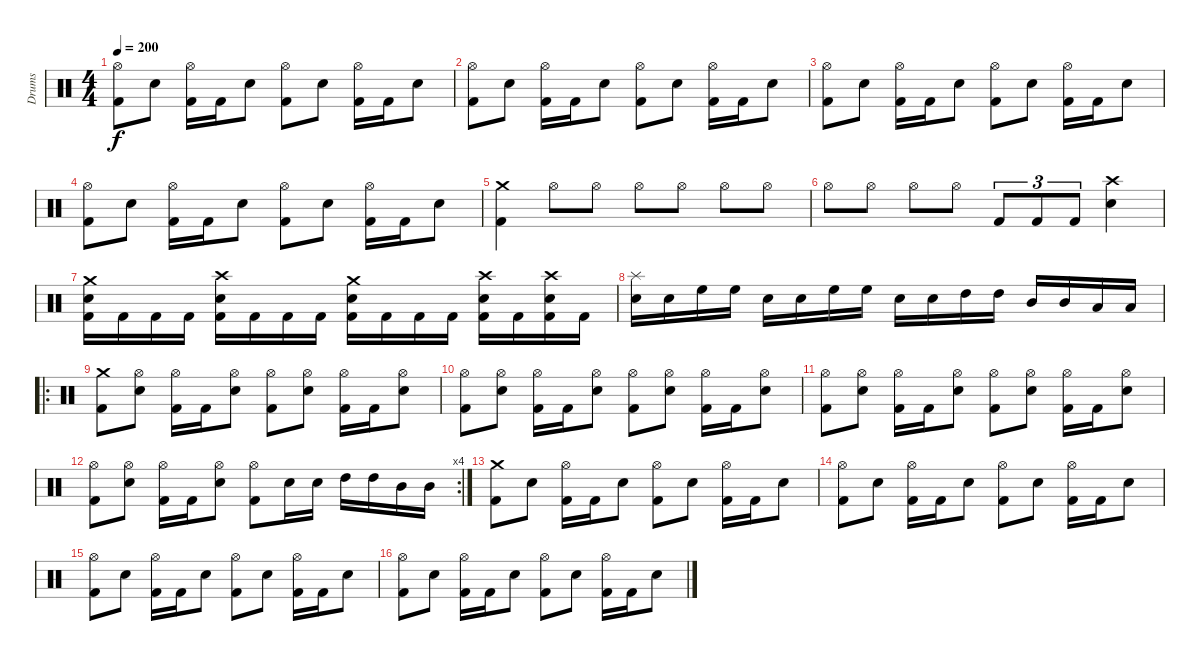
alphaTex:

\track ("Drums" "Drums") {instrument percussion}
\staff {score}
\articulation defaults
\ts (4 4)
\tempo 200
\clef neutral
\ks c
("Hi-Hat (open)" "Kick (hit) 2").8{dy f} "Electric Snare (hit)".8 ("Hi-Hat (open)" "Kick (hit) 2").16 "Kick (hit) 2".16 "Electric Snare (hit)".8 ("Hi-Hat (open)" "Kick (hit) 2").8 "Electric Snare (hit)".8 ("Hi-Hat (open)" "Kick (hit) 2").16 "Kick (hit) 2".16 "Electric Snare (hit)".8 |
("Hi-Hat (open)" "Kick (hit) 2").8 "Electric Snare (hit)".8 ("Hi-Hat (open)" "Kick (hit) 2").16 "Kick (hit) 2".16 "Electric Snare (hit)".8 ("Hi-Hat (open)" "Kick (hit) 2").8 "Electric Snare (hit)".8 ("Hi-Hat (open)" "Kick (hit) 2").16 "Kick (hit) 2".16 "Electric Snare (hit)".8 |
("Hi-Hat (open)" "Kick (hit) 2").8 "Electric Snare (hit)".8 ("Hi-Hat (open)" "Kick (hit) 2").16 "Kick (hit) 2".16 "Electric Snare (hit)".8 ("Hi-Hat (open)" "Kick (hit) 2").8 "Electric Snare (hit)".8 ("Hi-Hat (open)" "Kick (hit) 2").16 "Kick (hit) 2".16 "Electric Snare (hit)".8 |
("Hi-Hat (open)" "Kick (hit) 2").8 "Electric Snare (hit)".8 ("Hi-Hat (open)" "Kick (hit) 2").16 "Kick (hit) 2".16 "Electric Snare (hit)".8 ("Hi-Hat (open)" "Kick (hit) 2").8 "Electric Snare (hit)".8 ("Hi-Hat (open)" "Kick (hit) 2").16 "Kick (hit) 2".16 "Electric Snare (hit)".8 |
("Crash medium (hit)" "Kick (hit) 2").4 "Hi-Hat (open)".8 "Hi-Hat (open)".8 "Hi-Hat (open)".8 "Hi-Hat (open)".8 "Hi-Hat (open)".8 "Hi-Hat (open)".8 |
"Hi-Hat (open)".8 "Hi-Hat (open)".8 "Hi-Hat (open)".8 "Hi-Hat (open)".8 "Kick (hit) 2".8{tu (3 2)} "Kick (hit) 2".8{tu (3 2)} "Kick (hit) 2".8{tu (3 2)} ("Crash high (hit)" "Electric Snare (hit)").4 |
("Crash medium (hit)" "Electric Snare (hit)" "Kick (hit) 2").16 "Kick (hit) 2".16 "Kick (hit) 2".16 "Kick (hit) 2".16 ("Crash high (hit)" "Electric Snare (hit)" "Kick (hit) 2").16 "Kick (hit) 2".16 "Kick (hit) 2".16 "Kick (hit) 2".16 ("Crash medium (hit)" "Electric Snare (hit)" "Kick (hit) 2").16 "Kick (hit) 2".16 "Kick (hit) 2".16 "Kick (hit) 2".16 ("Crash high (hit)" "Electric Snare (hit)" "Kick (hit) 2").16 "Kick (hit) 2".16 ("Crash high (hit)" "Electric Snare (hit)" "Kick (hit) 2").16 "Kick (hit) 2".16 |
("Splash (hit)" "Electric Snare (hit)").16 "Electric Snare (hit)".16 "High Floor Tom (hit)".16 "High Floor Tom (hit)".16 "Electric Snare (hit)".16 "Electric Snare (hit)".16 "High Floor Tom (hit)".16 "High Floor Tom (hit)".16 "Electric Snare (hit)".16 "Electric Snare (hit)".16 "High Tom (hit)".16 "High Tom (hit)".16 "Mid Tom (hit)".16 "Mid Tom (hit)".16 "Low Tom (hit)".16 "Low Tom (hit)".16 |
\ro
("Crash medium (hit)" "Kick (hit) 2").8 ("Hi-Hat (open)" "Electric Snare (hit)").8 ("Hi-Hat (open)" "Kick (hit) 2").16 "Kick (hit) 2".16 ("Hi-Hat (open)" "Electric Snare (hit)").8 ("Hi-Hat (open)" "Kick (hit) 2").8 ("Hi-Hat (open)" "Electric Snare (hit)").8 ("Hi-Hat (open)" "Kick (hit) 2").16 "Kick (hit) 2".16 ("Hi-Hat (open)" "Electric Snare (hit)").8 |
("Hi-Hat (open)" "Kick (hit) 2").8 ("Hi-Hat (open)" "Electric Snare (hit)").8 ("Hi-Hat (open)" "Kick (hit) 2").16 "Kick (hit) 2".16 ("Hi-Hat (open)" "Electric Snare (hit)").8 ("Hi-Hat (open)" "Kick (hit) 2").8 ("Hi-Hat (open)" "Electric Snare (hit)").8 ("Hi-Hat (open)" "Kick (hit) 2").16 "Kick (hit) 2".16 ("Hi-Hat (open)" "Electric Snare (hit)").8 |
("Hi-Hat (open)" "Kick (hit) 2").8 ("Hi-Hat (open)" "Electric Snare (hit)").8 ("Hi-Hat (open)" "Kick (hit) 2").16 "Kick (hit) 2".16 ("Hi-Hat (open)" "Electric Snare (hit)").8 ("Hi-Hat (open)" "Kick (hit) 2").8 ("Hi-Hat (open)" "Electric Snare (hit)").8 ("Hi-Hat (open)" "Kick (hit) 2").16 "Kick (hit) 2".16 ("Hi-Hat (open)" "Electric Snare (hit)").8 |
\rc 4
("Hi-Hat (open)" "Kick (hit) 2").8 ("Hi-Hat (open)" "Electric Snare (hit)").8 ("Hi-Hat (open)" "Kick (hit) 2").16 "Kick (hit) 2".16 ("Hi-Hat (open)" "Electric Snare (hit)").8 ("Hi-Hat (open)" "Kick (hit) 2").8 "Electric Snare (hit)".16 "Electric Snare (hit)".16 "High Tom (hit)".16 "High Tom (hit)".16 "Mid Tom (hit)".16 "Mid Tom (hit)".16 |
("Crash medium (hit)" "Kick (hit) 2").8 "Electric Snare (hit)".8 ("Hi-Hat (open)" "Kick (hit) 2").16 "Kick (hit) 2".16 "Electric Snare (hit)".8 ("Hi-Hat (open)" "Kick (hit) 2").8 "Electric Snare (hit)".8 ("Hi-Hat (open)" "Kick (hit) 2").16 "Kick (hit) 2".16 "Electric Snare (hit)".8 |
("Hi-Hat (open)" "Kick (hit) 2").8 "Electric Snare (hit)".8 ("Hi-Hat (open)" "Kick (hit) 2").16 "Kick (hit) 2".16 "Electric Snare (hit)".8 ("Hi-Hat (open)" "Kick (hit) 2").8 "Electric Snare (hit)".8 ("Hi-Hat (open)" "Kick (hit) 2").16 "Kick (hit) 2".16 "Electric Snare (hit)".8 |
("Hi-Hat (open)" "Kick (hit) 2").8 "Electric Snare (hit)".8 ("Hi-Hat (open)" "Kick (hit) 2").16 "Kick (hit) 2".16 "Electric Snare (hit)".8 ("Hi-Hat (open)" "Kick (hit) 2").8 "Electric Snare (hit)".8 ("Hi-Hat (open)" "Kick (hit) 2").16 "Kick (hit) 2".16 "Electric Snare (hit)".8 |
("Hi-Hat (open)" "Kick (hit) 2").8 "Electric Snare (hit)".8 ("Hi-Hat (open)" "Kick (hit) 2").16 "Kick (hit) 2".16 "Electric Snare (hit)".8 ("Hi-Hat (open)" "Kick (hit) 2").8 "Electric Snare (hit)".8 ("Hi-Hat (open)" "Kick (hit) 2").16 "Kick (hit) 2".16 "Electric Snare (hit)".8
